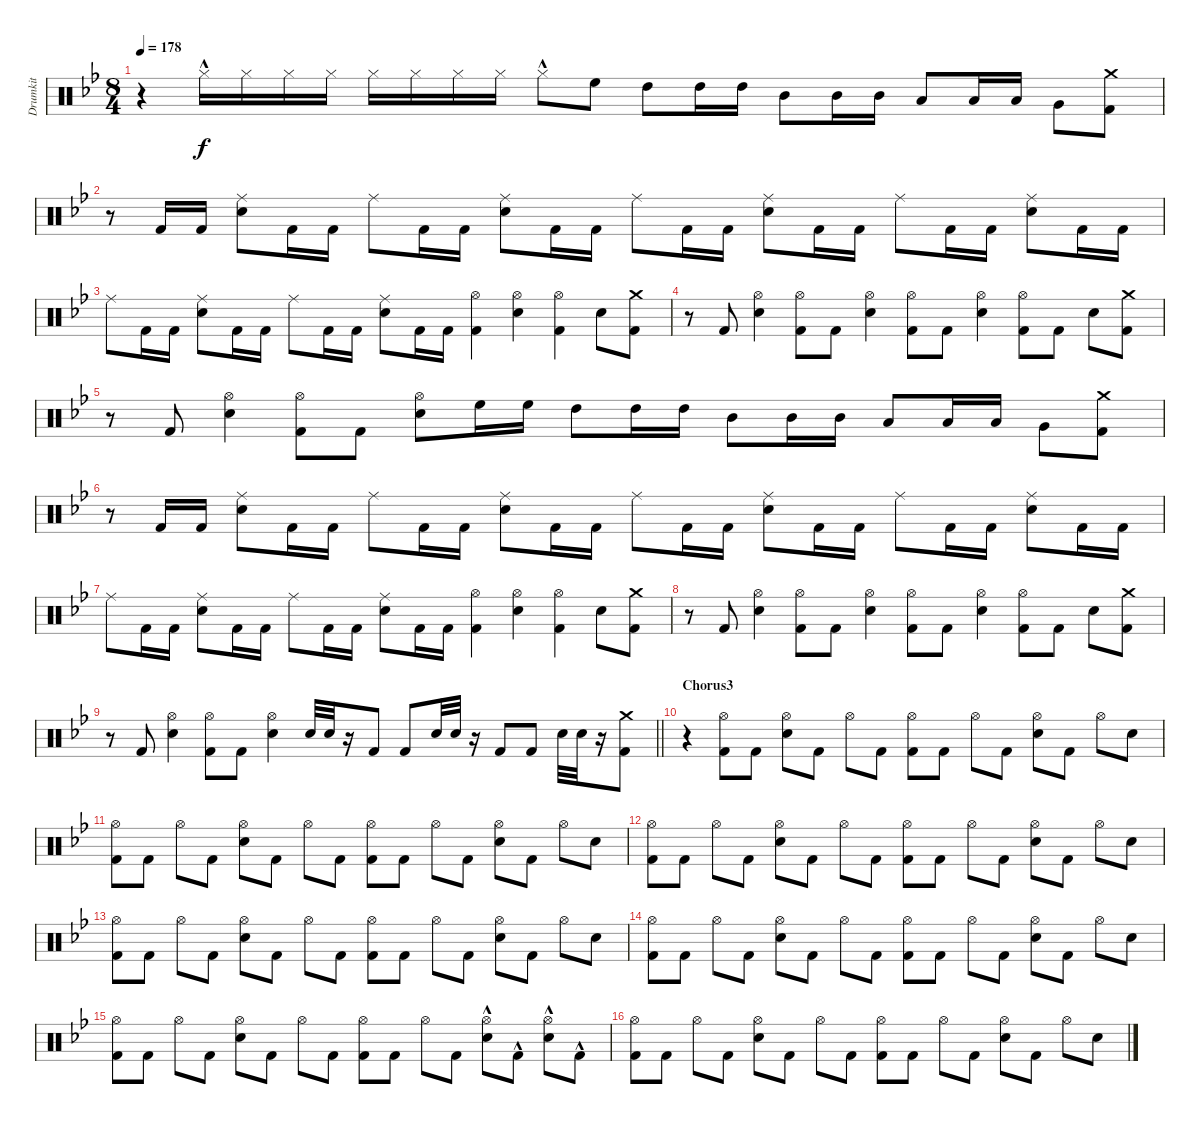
\track ("Drumkit" "Drumkit") {instrument percussion}
\staff {score}
\articulation defaults
\ts (8 4)
\tempo 178
\clef neutral
\ks bb
r.4{dy f} "Hi-Hat (closed)"{hac}.16 "Hi-Hat (closed)".16 "Hi-Hat (closed)".16 "Hi-Hat (closed)".16 "Hi-Hat (closed)".16 "Hi-Hat (closed)".16 "Hi-Hat (closed)".16 "Hi-Hat (closed)".16 "Hi-Hat (closed)"{hac}.8 "High Floor Tom (hit)".8 "High Tom (hit)".8 "High Tom (hit)".16 "High Tom (hit)".16 "Mid Tom (hit)".8 "Mid Tom (hit)".16 "Mid Tom (hit)".16 "Low Tom (hit)".8 "Low Tom (hit)".16 "Low Tom (hit)".16 "Very Low Tom (hit)".8 ("Crash medium (hit)" "Kick (hit) 2").8 |
r.8 "Kick (hit) 2".16 "Kick (hit) 2".16 ("Snare (hit) 2" "Ride (middle)").8 "Kick (hit) 2".16 "Kick (hit) 2".16 "Ride (middle)".8 "Kick (hit) 2".16 "Kick (hit) 2".16 ("Snare (hit) 2" "Ride (middle)").8 "Kick (hit) 2".16 "Kick (hit) 2".16 "Ride (middle)".8 "Kick (hit) 2".16 "Kick (hit) 2".16 ("Snare (hit) 2" "Ride (middle)").8 "Kick (hit) 2".16 "Kick (hit) 2".16 "Ride (middle)".8 "Kick (hit) 2".16 "Kick (hit) 2".16 ("Snare (hit) 2" "Ride (middle)").8 "Kick (hit) 2".16 "Kick (hit) 2".16 |
"Ride (middle)".8 "Kick (hit) 2".16 "Kick (hit) 2".16 ("Snare (hit) 2" "Ride (middle)").8 "Kick (hit) 2".16 "Kick (hit) 2".16 "Ride (middle)".8 "Kick (hit) 2".16 "Kick (hit) 2".16 ("Snare (hit) 2" "Ride (middle)").8 "Kick (hit) 2".16 "Kick (hit) 2".16 ("Hi-Hat (open)" "Kick (hit) 2").4 ("Hi-Hat (open)" "Snare (hit) 2").4 ("Kick (hit) 2" "Hi-Hat (open)").4 "Snare (hit) 2".8 ("Crash medium (hit)" "Kick (hit) 2").8 |
r.8 "Kick (hit) 2".8 ("Snare (hit) 2" "Hi-Hat (open)").4 ("Kick (hit) 2" "Hi-Hat (open)").8 "Kick (hit) 2".8 ("Snare (hit) 2" "Hi-Hat (open)").4 ("Kick (hit) 2" "Hi-Hat (open)").8 "Kick (hit) 2".8 ("Snare (hit) 2" "Hi-Hat (open)").4 ("Kick (hit) 2" "Hi-Hat (open)").8 "Kick (hit) 2".8 "Snare (hit) 2".8 ("Crash medium (hit)" "Kick (hit) 2").8 |
r.8 "Kick (hit) 2".8 ("Snare (hit) 2" "Hi-Hat (open)").4 ("Kick (hit) 2" "Hi-Hat (open)").8 "Kick (hit) 2".8 ("Snare (hit) 2" "Hi-Hat (open)").8 "High Floor Tom (hit)".16 "High Floor Tom (hit)".16 "High Tom (hit)".8 "High Tom (hit)".16 "High Tom (hit)".16 "Mid Tom (hit)".8 "Mid Tom (hit)".16 "Mid Tom (hit)".16 "Low Tom (hit)".8 "Low Tom (hit)".16 "Low Tom (hit)".16 "Very Low Tom (hit)".8 ("Crash medium (hit)" "Kick (hit) 2").8 |
r.8 "Kick (hit) 2".16 "Kick (hit) 2".16 ("Snare (hit) 2" "Ride (middle)").8 "Kick (hit) 2".16 "Kick (hit) 2".16 "Ride (middle)".8 "Kick (hit) 2".16 "Kick (hit) 2".16 ("Snare (hit) 2" "Ride (middle)").8 "Kick (hit) 2".16 "Kick (hit) 2".16 "Ride (middle)".8 "Kick (hit) 2".16 "Kick (hit) 2".16 ("Snare (hit) 2" "Ride (middle)").8 "Kick (hit) 2".16 "Kick (hit) 2".16 "Ride (middle)".8 "Kick (hit) 2".16 "Kick (hit) 2".16 ("Snare (hit) 2" "Ride (middle)").8 "Kick (hit) 2".16 "Kick (hit) 2".16 |
"Ride (middle)".8 "Kick (hit) 2".16 "Kick (hit) 2".16 ("Snare (hit) 2" "Ride (middle)").8 "Kick (hit) 2".16 "Kick (hit) 2".16 "Ride (middle)".8 "Kick (hit) 2".16 "Kick (hit) 2".16 ("Snare (hit) 2" "Ride (middle)").8 "Kick (hit) 2".16 "Kick (hit) 2".16 ("Hi-Hat (open)" "Kick (hit) 2").4 ("Hi-Hat (open)" "Snare (hit) 2").4 ("Kick (hit) 2" "Hi-Hat (open)").4 "Snare (hit) 2".8 ("Crash medium (hit)" "Kick (hit) 2").8 |
r.8 "Kick (hit) 2".8 ("Snare (hit) 2" "Hi-Hat (open)").4 ("Kick (hit) 2" "Hi-Hat (open)").8 "Kick (hit) 2".8 ("Snare (hit) 2" "Hi-Hat (open)").4 ("Kick (hit) 2" "Hi-Hat (open)").8 "Kick (hit) 2".8 ("Snare (hit) 2" "Hi-Hat (open)").4 ("Kick (hit) 2" "Hi-Hat (open)").8 "Kick (hit) 2".8 "Snare (hit) 2".8 ("Crash medium (hit)" "Kick (hit) 2").8 |
\barLineRight lightlight
r.8 "Kick (hit) 2".8 ("Snare (hit) 2" "Hi-Hat (open)").4 ("Kick (hit) 2" "Hi-Hat (open)").8 "Kick (hit) 2".8 ("Snare (hit) 2" "Hi-Hat (open)").4 "Snare (hit) 2".32 "Snare (hit) 2".32 r.16 "Kick (hit) 2".8 "Kick (hit) 2".8 "Snare (hit) 2".32 "Snare (hit) 2".32 r.16 "Kick (hit) 2".8 "Kick (hit) 2".8 "Snare (hit) 2".32 "Snare (hit) 2".32 r.16 ("Kick (hit) 2" "Crash medium (hit)").8 |
\section ("" "Chorus3")
r.4 ("Hi-Hat (open)" "Kick (hit) 2").8 "Kick (hit) 2".8 ("Hi-Hat (open)" "Snare (hit) 2").8 "Kick (hit) 2".8 "Hi-Hat (open)".8 "Kick (hit) 2".8 ("Hi-Hat (open)" "Kick (hit) 2").8 "Kick (hit) 2".8 "Hi-Hat (open)".8 "Kick (hit) 2".8 ("Hi-Hat (open)" "Snare (hit) 2").8 "Kick (hit) 2".8 "Hi-Hat (open)".8 "Snare (hit) 2".8 |
("Kick (hit) 2" "Hi-Hat (open)").8 "Kick (hit) 2".8 "Hi-Hat (open)".8 "Kick (hit) 2".8 ("Hi-Hat (open)" "Snare (hit) 2").8 "Kick (hit) 2".8 "Hi-Hat (open)".8 "Kick (hit) 2".8 ("Hi-Hat (open)" "Kick (hit) 2").8 "Kick (hit) 2".8 "Hi-Hat (open)".8 "Kick (hit) 2".8 ("Hi-Hat (open)" "Snare (hit) 2").8 "Kick (hit) 2".8 "Hi-Hat (open)".8 "Snare (hit) 2".8 |
("Kick (hit) 2" "Hi-Hat (open)").8 "Kick (hit) 2".8 "Hi-Hat (open)".8 "Kick (hit) 2".8 ("Hi-Hat (open)" "Snare (hit) 2").8 "Kick (hit) 2".8 "Hi-Hat (open)".8 "Kick (hit) 2".8 ("Hi-Hat (open)" "Kick (hit) 2").8 "Kick (hit) 2".8 "Hi-Hat (open)".8 "Kick (hit) 2".8 ("Hi-Hat (open)" "Snare (hit) 2").8 "Kick (hit) 2".8 "Hi-Hat (open)".8 "Snare (hit) 2".8 |
("Kick (hit) 2" "Hi-Hat (open)").8 "Kick (hit) 2".8 "Hi-Hat (open)".8 "Kick (hit) 2".8 ("Hi-Hat (open)" "Snare (hit) 2").8 "Kick (hit) 2".8 "Hi-Hat (open)".8 "Kick (hit) 2".8 ("Hi-Hat (open)" "Kick (hit) 2").8 "Kick (hit) 2".8 "Hi-Hat (open)".8 "Kick (hit) 2".8 ("Hi-Hat (open)" "Snare (hit) 2").8 "Kick (hit) 2".8 "Hi-Hat (open)".8 "Snare (hit) 2".8 |
("Kick (hit) 2" "Hi-Hat (open)").8 "Kick (hit) 2".8 "Hi-Hat (open)".8 "Kick (hit) 2".8 ("Hi-Hat (open)" "Snare (hit) 2").8 "Kick (hit) 2".8 "Hi-Hat (open)".8 "Kick (hit) 2".8 ("Hi-Hat (open)" "Kick (hit) 2").8 "Kick (hit) 2".8 "Hi-Hat (open)".8 "Kick (hit) 2".8 ("Hi-Hat (open)" "Snare (hit) 2").8 "Kick (hit) 2".8 "Hi-Hat (open)".8 "Snare (hit) 2".8 |
("Kick (hit) 2" "Hi-Hat (open)").8 "Kick (hit) 2".8 "Hi-Hat (open)".8 "Kick (hit) 2".8 ("Hi-Hat (open)" "Snare (hit) 2").8 "Kick (hit) 2".8 "Hi-Hat (open)".8 "Kick (hit) 2".8 ("Hi-Hat (open)" "Kick (hit) 2").8 "Kick (hit) 2".8 "Hi-Hat (open)".8 "Kick (hit) 2".8 ("Hi-Hat (open)" "Snare (hit) 2"{hac}).8 "Kick (hit) 2"{hac}.8 ("Hi-Hat (open)" "Snare (hit) 2"{hac}).8 "Kick (hit) 2"{hac}.8 |
("Kick (hit) 2" "Hi-Hat (open)").8 "Kick (hit) 2".8 "Hi-Hat (open)".8 "Kick (hit) 2".8 ("Hi-Hat (open)" "Snare (hit) 2").8 "Kick (hit) 2".8 "Hi-Hat (open)".8 "Kick (hit) 2".8 ("Hi-Hat (open)" "Kick (hit) 2").8 "Kick (hit) 2".8 "Hi-Hat (open)".8 "Kick (hit) 2".8 ("Hi-Hat (open)" "Snare (hit) 2").8 "Kick (hit) 2".8 "Hi-Hat (open)".8 "Snare (hit) 2".8
